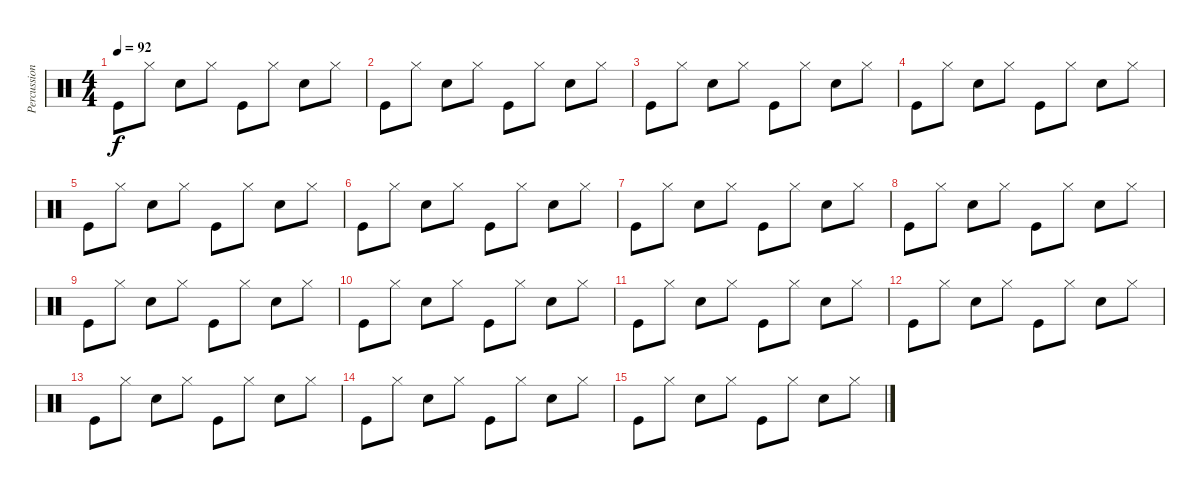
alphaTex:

\track ("Percussions" "Percussion") {instrument percussion}
\staff {score}
\articulation defaults
\ts (4 4)
\tempo 92
\clef neutral
\ks c "Kick (hit)".8{dy f} "Hi-Hat (closed)".8 "Electric Snare (hit)".8 "Hi-Hat (closed)".8 "Kick (hit)".8 "Hi-Hat (closed)".8 "Electric Snare (hit)".8 "Hi-Hat (closed)".8
|
"Kick (hit)".8 "Hi-Hat (closed)".8 "Electric Snare (hit)".8 "Hi-Hat (closed)".8 "Kick (hit)".8 "Hi-Hat (closed)".8 "Electric Snare (hit)".8 "Hi-Hat (closed)".8 |
"Kick (hit)".8 "Hi-Hat (closed)".8 "Electric Snare (hit)".8 "Hi-Hat (closed)".8 "Kick (hit)".8 "Hi-Hat (closed)".8 "Electric Snare (hit)".8 "Hi-Hat (closed)".8 |
"Kick (hit)".8 "Hi-Hat (closed)".8 "Electric Snare (hit)".8 "Hi-Hat (closed)".8 "Kick (hit)".8 "Hi-Hat (closed)".8 "Electric Snare (hit)".8 "Hi-Hat (closed)".8 |
"Kick (hit)".8 "Hi-Hat (closed)".8 "Electric Snare (hit)".8 "Hi-Hat (closed)".8 "Kick (hit)".8 "Hi-Hat (closed)".8 "Electric Snare (hit)".8 "Hi-Hat (closed)".8 |
"Kick (hit)".8 "Hi-Hat (closed)".8 "Electric Snare (hit)".8 "Hi-Hat (closed)".8 "Kick (hit)".8 "Hi-Hat (closed)".8 "Electric Snare (hit)".8 "Hi-Hat (closed)".8 |
"Kick (hit)".8 "Hi-Hat (closed)".8 "Electric Snare (hit)".8 "Hi-Hat (closed)".8 "Kick (hit)".8 "Hi-Hat (closed)".8 "Electric Snare (hit)".8 "Hi-Hat (closed)".8 |
"Kick (hit)".8 "Hi-Hat (closed)".8 "Electric Snare (hit)".8 "Hi-Hat (closed)".8 "Kick (hit)".8 "Hi-Hat (closed)".8 "Electric Snare (hit)".8 "Hi-Hat (closed)".8 |
"Kick (hit)".8 "Hi-Hat (closed)".8 "Electric Snare (hit)".8 "Hi-Hat (closed)".8 "Kick (hit)".8 "Hi-Hat (closed)".8 "Electric Snare (hit)".8 "Hi-Hat (closed)".8 |
"Kick (hit)".8 "Hi-Hat (closed)".8 "Electric Snare (hit)".8 "Hi-Hat (closed)".8 "Kick (hit)".8 "Hi-Hat (closed)".8 "Electric Snare (hit)".8 "Hi-Hat (closed)".8 |
"Kick (hit)".8 "Hi-Hat (closed)".8 "Electric Snare (hit)".8 "Hi-Hat (closed)".8 "Kick (hit)".8 "Hi-Hat (closed)".8 "Electric Snare (hit)".8 "Hi-Hat (closed)".8 |
"Kick (hit)".8 "Hi-Hat (closed)".8 "Electric Snare (hit)".8 "Hi-Hat (closed)".8 "Kick (hit)".8 "Hi-Hat (closed)".8 "Electric Snare (hit)".8 "Hi-Hat (closed)".8 |
"Kick (hit)".8 "Hi-Hat (closed)".8 "Electric Snare (hit)".8 "Hi-Hat (closed)".8 "Kick (hit)".8 "Hi-Hat (closed)".8 "Electric Snare (hit)".8 "Hi-Hat (closed)".8 |
"Kick (hit)".8 "Hi-Hat (closed)".8 "Electric Snare (hit)".8 "Hi-Hat (closed)".8 "Kick (hit)".8 "Hi-Hat (closed)".8 "Electric Snare (hit)".8 "Hi-Hat (closed)".8 |
"Kick (hit)".8 "Hi-Hat (closed)".8 "Electric Snare (hit)".8 "Hi-Hat (closed)".8 "Kick (hit)".8 "Hi-Hat (closed)".8 "Electric Snare (hit)".8 "Hi-Hat (closed)".8
